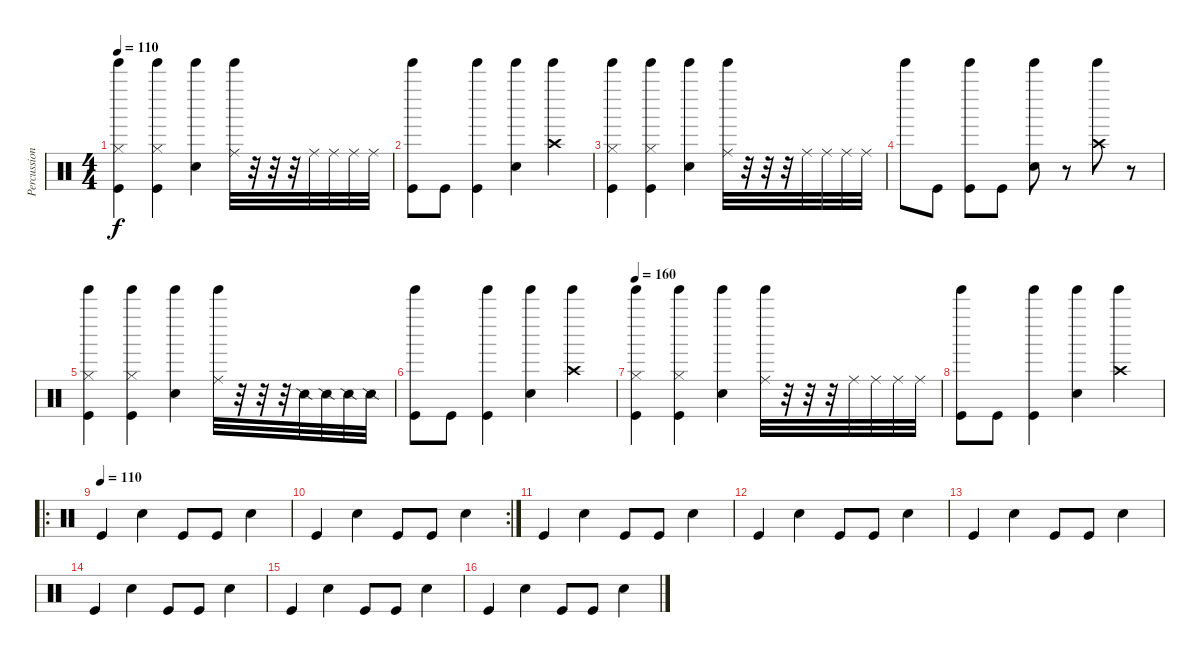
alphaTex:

\track ("Percussions" "Percussion") {instrument percussion}
\staff {score}
\articulation defaults
\ts (4 4)
\tempo 110
\tempo 160
\tempo 110
\clef neutral
\ks c
("Hi-Hat (closed)" "Kick (hit)" "Tinkle Bell (hit)").4{dy f} ("Hi-Hat (closed)" "Kick (hit)" "Tinkle Bell (hit)").4 ("Electric Snare (hit)" "Tinkle Bell (hit)").4 ("Ride (middle)" "Tinkle Bell (hit)").32 r.32 r.32 r.32 "Ride (middle)".32 "Ride (middle)".32 "Ride (middle)".32 "Ride (middle)".32 |
("Kick (hit)" "Tinkle Bell (hit)").8 "Kick (hit)".8 ("Kick (hit)" "Tinkle Bell (hit)").4 ("Electric Snare (hit)" "Tinkle Bell (hit)").4 ("Crash high (hit)" "Tinkle Bell (hit)").4 |
("Hi-Hat (closed)" "Kick (hit)" "Tinkle Bell (hit)").4 ("Hi-Hat (closed)" "Kick (hit)" "Tinkle Bell (hit)").4 ("Electric Snare (hit)" "Tinkle Bell (hit)").4 ("Ride (middle)" "Tinkle Bell (hit)").32 r.32 r.32 r.32 "Ride (middle)".32 "Ride (middle)".32 "Ride (middle)".32 "Ride (middle)".32 |
"Tinkle Bell (hit)".8 "Kick (hit)".8 ("Kick (hit)" "Tinkle Bell (hit)").8 "Kick (hit)".8 ("Electric Snare (hit)" "Tinkle Bell (hit)").8 r.8 ("Crash high (hit)" "Tinkle Bell (hit)").8 r.8 |
("Hi-Hat (closed)" "Kick (hit)" "Tinkle Bell (hit)").4 ("Hi-Hat (closed)" "Kick (hit)" "Tinkle Bell (hit)").4 ("Electric Snare (hit)" "Tinkle Bell (hit)").4 ("Ride (middle)" "Tinkle Bell (hit)").32 r.32 r.32 r.32 "Snare (side stick) 2".32 "Snare (side stick) 2".32 "Snare (side stick) 2".32 "Snare (side stick) 2".32 |
("Kick (hit)" "Tinkle Bell (hit)").8 "Kick (hit)".8 ("Kick (hit)" "Tinkle Bell (hit)").4 ("Electric Snare (hit)" "Tinkle Bell (hit)").4 ("Crash high (hit)" "Tinkle Bell (hit)").4 |
\tempo 160
("Hi-Hat (closed)" "Kick (hit)" "Tinkle Bell (hit)").4 ("Hi-Hat (closed)" "Kick (hit)" "Tinkle Bell (hit)").4 ("Electric Snare (hit)" "Tinkle Bell (hit)").4 ("Ride (middle)" "Tinkle Bell (hit)").32 r.32 r.32 r.32 "Ride (middle)".32 "Ride (middle)".32 "Ride (middle)".32 "Ride (middle)".32 |
("Kick (hit)" "Tinkle Bell (hit)").8 "Kick (hit)".8 ("Kick (hit)" "Tinkle Bell (hit)").4 ("Electric Snare (hit)" "Tinkle Bell (hit)").4 ("Crash high (hit)" "Tinkle Bell (hit)").4 |
\ro
\tempo (110)
"Kick (hit)".4 "Electric Snare (hit)".4 "Kick (hit)".8 "Kick (hit)".8 "Electric Snare (hit)".4 |
\rc 2 "Kick (hit)".4 "Electric Snare (hit)".4 "Kick (hit)".8 "Kick (hit)".8 "Electric Snare (hit)".4
|
"Kick (hit)".4 "Electric Snare (hit)".4 "Kick (hit)".8 "Kick (hit)".8 "Electric Snare (hit)".4 |
"Kick (hit)".4 "Electric Snare (hit)".4 "Kick (hit)".8 "Kick (hit)".8 "Electric Snare (hit)".4 |
"Kick (hit)".4 "Electric Snare (hit)".4 "Kick (hit)".8 "Kick (hit)".8 "Electric Snare (hit)".4 |
"Kick (hit)".4 "Electric Snare (hit)".4 "Kick (hit)".8 "Kick (hit)".8 "Electric Snare (hit)".4 |
"Kick (hit)".4 "Electric Snare (hit)".4 "Kick (hit)".8 "Kick (hit)".8 "Electric Snare (hit)".4 |
"Kick (hit)".4 "Electric Snare (hit)".4 "Kick (hit)".8 "Kick (hit)".8 "Electric Snare (hit)".4
